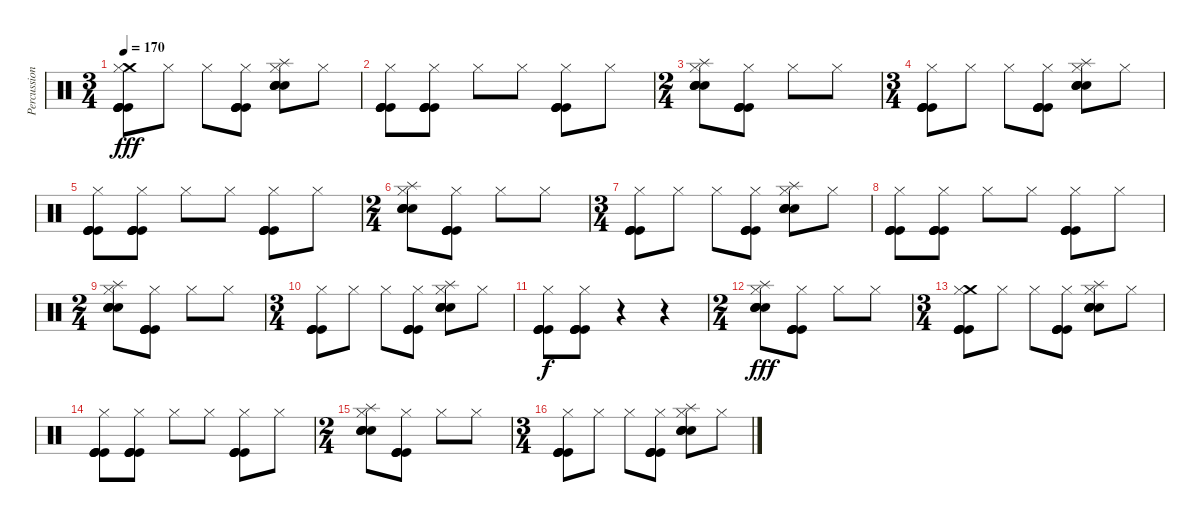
\track ("Percussion" "Percussion") {instrument percussion}
\staff {score}
\articulation defaults
\ts (3 4)
\tempo 170
\clef neutral
\ks c
("Crash medium (hit)" "Hi-Hat (closed)" "Kick (hit)" "Kick (hit)" "Kick (hit)" "Kick (hit)").8{dy fff} "Hi-Hat (closed)".8 "Hi-Hat (closed)".8 ("Hi-Hat (closed)" "Kick (hit)" "Kick (hit)" "Kick (hit)" "Kick (hit)").8 ("Splash (hit)" "Hi-Hat (closed)" "Hand Clap (hit)" "Hand Clap (hit)" "Hand Clap (hit)" "Hand Clap (hit)").8 "Hi-Hat (closed)".8 |
("Hi-Hat (closed)" "Kick (hit)" "Kick (hit)" "Kick (hit)" "Kick (hit)").8 ("Hi-Hat (closed)" "Kick (hit)" "Kick (hit)" "Kick (hit)" "Kick (hit)").8 "Hi-Hat (closed)".8 "Hi-Hat (closed)".8 ("Hi-Hat (closed)" "Kick (hit)" "Kick (hit)" "Kick (hit)" "Kick (hit)").8 "Hi-Hat (closed)".8 |
\ts (2 4)
("Splash (hit)" "Hi-Hat (closed)" "Hand Clap (hit)" "Hand Clap (hit)" "Hand Clap (hit)" "Hand Clap (hit)").8 ("Hi-Hat (closed)" "Kick (hit)" "Kick (hit)" "Kick (hit)" "Kick (hit)").8 "Hi-Hat (closed)".8 "Hi-Hat (closed)".8 |
\ts (3 4)
("Hi-Hat (closed)" "Kick (hit)" "Kick (hit)" "Kick (hit)" "Kick (hit)").8 "Hi-Hat (closed)".8 "Hi-Hat (closed)".8 ("Hi-Hat (closed)" "Kick (hit)" "Kick (hit)" "Kick (hit)" "Kick (hit)").8 ("Splash (hit)" "Hi-Hat (closed)" "Hand Clap (hit)" "Hand Clap (hit)" "Hand Clap (hit)" "Hand Clap (hit)").8 "Hi-Hat (closed)".8 |
("Hi-Hat (closed)" "Kick (hit)" "Kick (hit)" "Kick (hit)" "Kick (hit)").8 ("Hi-Hat (closed)" "Kick (hit)" "Kick (hit)" "Kick (hit)" "Kick (hit)").8 "Hi-Hat (closed)".8 "Hi-Hat (closed)".8 ("Hi-Hat (closed)" "Kick (hit)" "Kick (hit)" "Kick (hit)" "Kick (hit)").8 "Hi-Hat (closed)".8 |
\ts (2 4)
("Splash (hit)" "Hi-Hat (closed)" "Hand Clap (hit)" "Hand Clap (hit)" "Hand Clap (hit)" "Hand Clap (hit)").8 ("Hi-Hat (closed)" "Kick (hit)" "Kick (hit)" "Kick (hit)" "Kick (hit)").8 "Hi-Hat (closed)".8 "Hi-Hat (closed)".8 |
\ts (3 4)
("Hi-Hat (closed)" "Kick (hit)" "Kick (hit)" "Kick (hit)" "Kick (hit)").8 "Hi-Hat (closed)".8 "Hi-Hat (closed)".8 ("Hi-Hat (closed)" "Kick (hit)" "Kick (hit)" "Kick (hit)" "Kick (hit)").8 ("Splash (hit)" "Hi-Hat (closed)" "Hand Clap (hit)" "Hand Clap (hit)" "Hand Clap (hit)" "Hand Clap (hit)").8 "Hi-Hat (closed)".8 |
("Hi-Hat (closed)" "Kick (hit)" "Kick (hit)" "Kick (hit)" "Kick (hit)").8 ("Hi-Hat (closed)" "Kick (hit)" "Kick (hit)" "Kick (hit)" "Kick (hit)").8 "Hi-Hat (closed)".8 "Hi-Hat (closed)".8 ("Hi-Hat (closed)" "Kick (hit)" "Kick (hit)" "Kick (hit)" "Kick (hit)").8 "Hi-Hat (closed)".8 |
\ts (2 4)
("Splash (hit)" "Hi-Hat (closed)" "Hand Clap (hit)" "Hand Clap (hit)" "Hand Clap (hit)" "Hand Clap (hit)").8 ("Hi-Hat (closed)" "Kick (hit)" "Kick (hit)" "Kick (hit)" "Kick (hit)").8 "Hi-Hat (closed)".8 "Hi-Hat (closed)".8 |
\ts (3 4)
("Hi-Hat (closed)" "Kick (hit)" "Kick (hit)" "Kick (hit)" "Kick (hit)").8 "Hi-Hat (closed)".8 "Hi-Hat (closed)".8 ("Hi-Hat (closed)" "Kick (hit)" "Kick (hit)" "Kick (hit)" "Kick (hit)").8 ("Splash (hit)" "Hi-Hat (closed)" "Hand Clap (hit)" "Hand Clap (hit)" "Hand Clap (hit)" "Hand Clap (hit)").8 "Hi-Hat (closed)".8 |
("Hi-Hat (closed)" "Kick (hit)" "Kick (hit)" "Kick (hit)" "Kick (hit)").8{dy f} ("Hi-Hat (closed)" "Kick (hit)" "Kick (hit)" "Kick (hit)" "Kick (hit)").8 r.4 r.4 |
\ts (2 4)
("Splash (hit)" "Hi-Hat (closed)" "Hand Clap (hit)" "Hand Clap (hit)" "Hand Clap (hit)" "Hand Clap (hit)").8{dy fff} ("Hi-Hat (closed)" "Kick (hit)" "Kick (hit)" "Kick (hit)" "Kick (hit)").8 "Hi-Hat (closed)".8 "Hi-Hat (closed)".8 |
\ts (3 4)
("Crash medium (hit)" "Hi-Hat (closed)" "Kick (hit)" "Kick (hit)" "Kick (hit)" "Kick (hit)").8 "Hi-Hat (closed)".8 "Hi-Hat (closed)".8 ("Hi-Hat (closed)" "Kick (hit)" "Kick (hit)" "Kick (hit)" "Kick (hit)").8 ("Splash (hit)" "Hi-Hat (closed)" "Hand Clap (hit)" "Hand Clap (hit)" "Hand Clap (hit)" "Hand Clap (hit)").8 "Hi-Hat (closed)".8 |
("Hi-Hat (closed)" "Kick (hit)" "Kick (hit)" "Kick (hit)" "Kick (hit)").8 ("Hi-Hat (closed)" "Kick (hit)" "Kick (hit)" "Kick (hit)" "Kick (hit)").8 "Hi-Hat (closed)".8 "Hi-Hat (closed)".8 ("Hi-Hat (closed)" "Kick (hit)" "Kick (hit)" "Kick (hit)" "Kick (hit)").8 "Hi-Hat (closed)".8 |
\ts (2 4)
("Splash (hit)" "Hi-Hat (closed)" "Hand Clap (hit)" "Hand Clap (hit)" "Hand Clap (hit)" "Hand Clap (hit)").8 ("Hi-Hat (closed)" "Kick (hit)" "Kick (hit)" "Kick (hit)" "Kick (hit)").8 "Hi-Hat (closed)".8 "Hi-Hat (closed)".8 |
\ts (3 4)
("Hi-Hat (closed)" "Kick (hit)" "Kick (hit)" "Kick (hit)" "Kick (hit)").8 "Hi-Hat (closed)".8 "Hi-Hat (closed)".8 ("Hi-Hat (closed)" "Kick (hit)" "Kick (hit)" "Kick (hit)" "Kick (hit)").8 ("Splash (hit)" "Hi-Hat (closed)" "Hand Clap (hit)" "Hand Clap (hit)" "Hand Clap (hit)" "Hand Clap (hit)").8 "Hi-Hat (closed)".8
